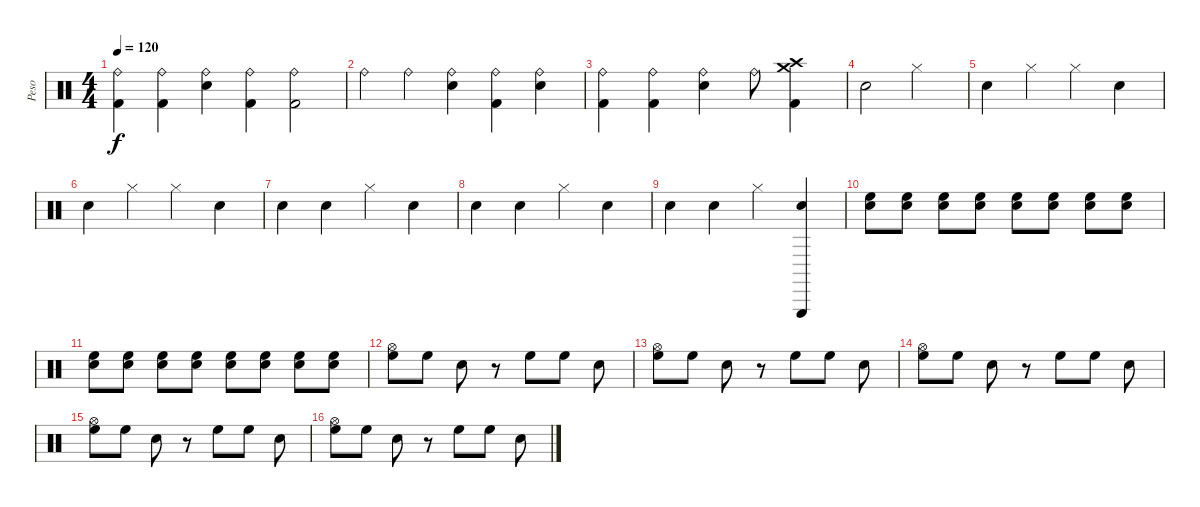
\track ("Peso" "Peso") {instrument percussion}
\staff {score}
\articulation defaults
\ts (4 4)
\tempo 120
\clef neutral
\ks c
("Ride (bell)" "Kick (hit) 2").4{dy f} ("Ride (bell)" "Kick (hit) 2").4 ("Ride (bell)" "Snare (hit) 2").4 ("Ride (bell)" "Kick (hit) 2").4 ("Ride (bell)" "Kick (hit) 2").2 |
"Ride (bell)".4 "Ride (bell)".4 ("Ride (bell)" "Snare (hit) 2").4 ("Ride (bell)" "Kick (hit) 2").4 ("Ride (bell)" "Snare (hit) 2").4 |
("Ride (bell)" "Kick (hit) 2").4 ("Ride (bell)" "Kick (hit) 2").4 ("Ride (bell)" "Snare (hit) 2").4 "Ride (bell)".8 ("Crash medium (hit)" "Crash high (hit)" "Kick (hit) 2").4 |
"Snare (hit)"{x}.2 "Hi-Hat (closed)".2 |
"Snare (hit)"{x}.4 "Hi-Hat (closed)"{x}.4 "Hi-Hat (closed)".4 "Snare (hit)"{x}.4 |
"Snare (hit)"{x}.4 "Hi-Hat (closed)"{x}.4 "Hi-Hat (closed)".4 "Snare (hit)"{x}.4 |
"Snare (hit)"{x}.4 "Snare (hit)"{x}.4 "Hi-Hat (closed)".4 "Snare (hit)"{x}.4 |
"Snare (hit)"{x}.4 "Snare (hit)"{x}.4 "Hi-Hat (closed)".4 "Snare (hit)"{x}.4 |
"Snare (hit)"{x}.4 "Snare (hit)"{x}.4 "Hi-Hat (closed)".4 ("Triangle (hit)" "Snare (hit)"{x}).4 |
("High Floor Tom (hit)" "Snare (hit) 2").8{volume 6} ("High Floor Tom (hit)" "Snare (hit) 2").8 ("High Floor Tom (hit)" "Snare (hit) 2").8{volume 7} ("High Floor Tom (hit)" "Snare (hit) 2").8 ("High Floor Tom (hit)" "Snare (hit) 2").8{volume 10} ("High Floor Tom (hit)" "Snare (hit) 2").8 ("High Floor Tom (hit)" "Snare (hit) 2").8 ("High Floor Tom (hit)" "Snare (hit) 2").8{volume 12} |
("High Floor Tom (hit)" "Snare (hit) 2").8 ("High Floor Tom (hit)" "Snare (hit) 2").8{volume 16} ("High Floor Tom (hit)" "Snare (hit) 2").8 ("High Floor Tom (hit)" "Snare (hit) 2").8 ("High Floor Tom (hit)" "Snare (hit) 2").8 ("High Floor Tom (hit)" "Snare (hit) 2").8 ("High Floor Tom (hit)" "Snare (hit) 2").8 ("High Floor Tom (hit)" "Snare (hit) 2").8 |
("Hi-Hat (open)" "High Floor Tom (hit)").8 "High Floor Tom (hit)".8 "Snare (hit) 2".8 r.8 "High Floor Tom (hit)".8 "High Floor Tom (hit)".8 "Snare (hit) 2".8 |
("Hi-Hat (open)" "High Floor Tom (hit)").8 "High Floor Tom (hit)".8 "Snare (hit) 2".8 r.8 "High Floor Tom (hit)".8 "High Floor Tom (hit)".8 "Snare (hit) 2".8 |
("Hi-Hat (open)" "High Floor Tom (hit)").8 "High Floor Tom (hit)".8 "Snare (hit) 2".8 r.8 "High Floor Tom (hit)".8 "High Floor Tom (hit)".8 "Snare (hit) 2".8 |
("Hi-Hat (open)" "High Floor Tom (hit)").8 "High Floor Tom (hit)".8 "Snare (hit) 2".8 r.8 "High Floor Tom (hit)".8 "High Floor Tom (hit)".8 "Snare (hit) 2".8 |
("Hi-Hat (open)" "High Floor Tom (hit)").8 "High Floor Tom (hit)".8 "Snare (hit) 2".8 r.8 "High Floor Tom (hit)".8 "High Floor Tom (hit)".8 "Snare (hit) 2".8
